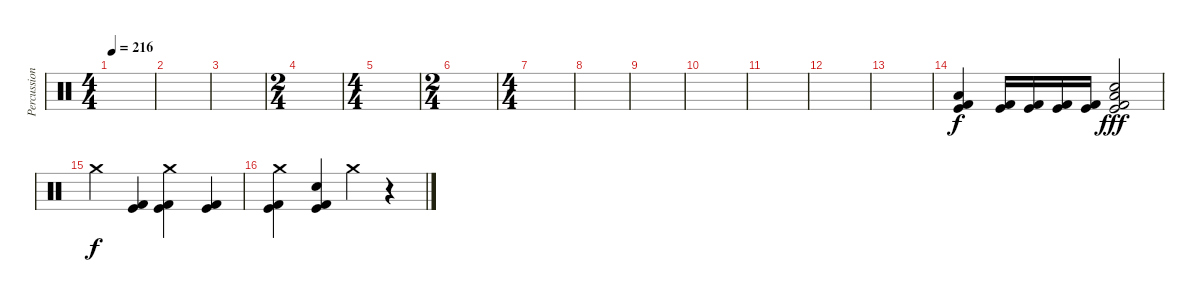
\track ("Percussion" "Percussion") {instrument percussion}
\staff {score}
\articulation defaults
\ts (4 4)
\tempo 216
\clef neutral
\ks c
|
|
|
\ts (2 4)
|
\ts (4 4)
|
\ts (2 4)
|
\ts (4 4)
|
|
|
|
|
|
|
("Low Tom (hit)" "Kick (hit)" "Kick (hit) 2").4 ("Kick (hit)" "Kick (hit) 2").16{dy f} ("Kick (hit)" "Kick (hit) 2").16 ("Kick (hit)" "Kick (hit) 2").16 ("Kick (hit)" "Kick (hit) 2").16 ("Low Floor Tom (hit)" "Electric Snare (hit)" "Kick (hit)" "Kick (hit) 2").2{dy fff} |
"Crash medium (hit)".4{dy f} ("Kick (hit)" "Kick (hit) 2").4 ("Crash medium (hit)" "Kick (hit)" "Kick (hit) 2").4 ("Kick (hit)" "Kick (hit) 2").4 |
("Crash medium (hit)" "Kick (hit)" "Kick (hit) 2").4 ("Electric Snare (hit)" "Kick (hit)" "Kick (hit) 2").4 "Crash medium (hit)".4 r.4
